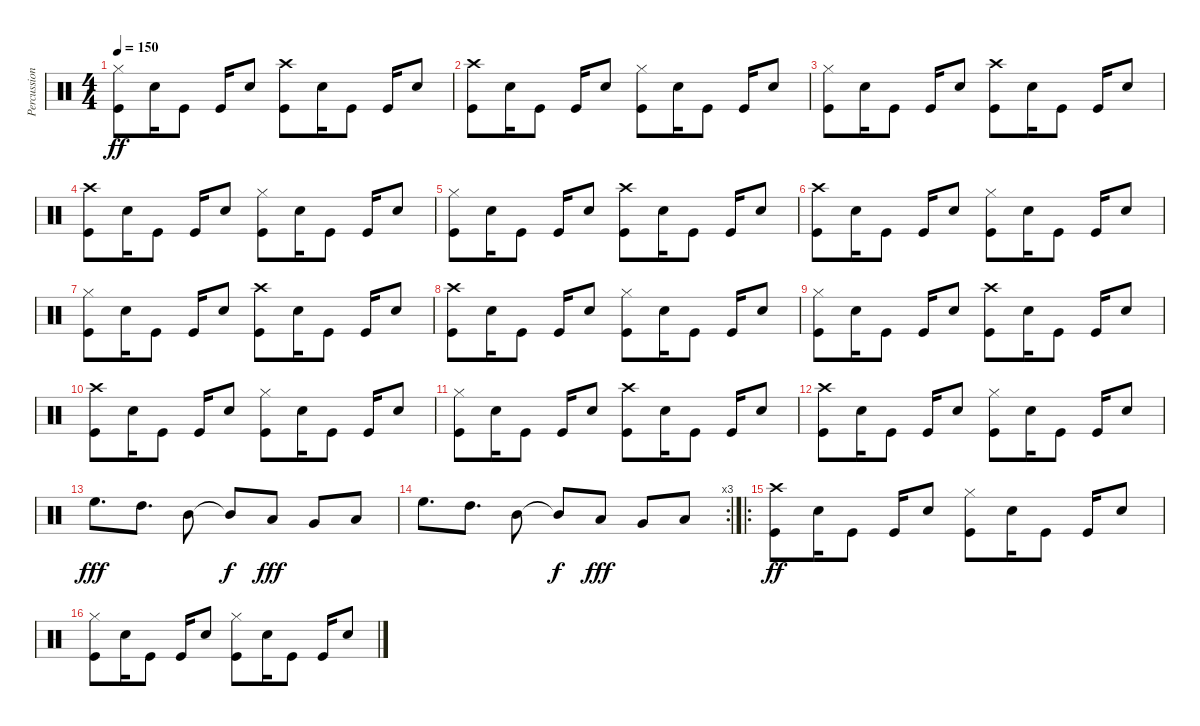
\track ("Percussions" "Percussion") {instrument percussion}
\staff {score}
\articulation defaults
\ts (4 4)
\tempo 150
\clef neutral
\ks c
("Hi-Hat (closed)" "Kick (hit)").8{dy ff} "Snare (hit) 2".16 "Kick (hit)".8 "Kick (hit)".16 "Snare (hit) 2".8 ("Crash high (hit)" "Kick (hit)").8 "Snare (hit) 2".16 "Kick (hit)".8 "Kick (hit)".16 "Snare (hit) 2".8 |
("Crash high (hit)" "Kick (hit)").8 "Snare (hit) 2".16 "Kick (hit)".8 "Kick (hit)".16 "Snare (hit) 2".8 ("Hi-Hat (closed)" "Kick (hit)").8 "Snare (hit) 2".16 "Kick (hit)".8 "Kick (hit)".16 "Snare (hit) 2".8 |
("Hi-Hat (closed)" "Kick (hit)").8 "Snare (hit) 2".16 "Kick (hit)".8 "Kick (hit)".16 "Snare (hit) 2".8 ("Crash high (hit)" "Kick (hit)").8 "Snare (hit) 2".16 "Kick (hit)".8 "Kick (hit)".16 "Snare (hit) 2".8 |
("Crash high (hit)" "Kick (hit)").8 "Snare (hit) 2".16 "Kick (hit)".8 "Kick (hit)".16 "Snare (hit) 2".8 ("Hi-Hat (closed)" "Kick (hit)").8 "Snare (hit) 2".16 "Kick (hit)".8 "Kick (hit)".16 "Snare (hit) 2".8 |
("Hi-Hat (closed)" "Kick (hit)").8 "Snare (hit) 2".16 "Kick (hit)".8 "Kick (hit)".16 "Snare (hit) 2".8 ("Crash high (hit)" "Kick (hit)").8 "Snare (hit) 2".16 "Kick (hit)".8 "Kick (hit)".16 "Snare (hit) 2".8 |
("Crash high (hit)" "Kick (hit)").8 "Snare (hit) 2".16 "Kick (hit)".8 "Kick (hit)".16 "Snare (hit) 2".8 ("Hi-Hat (closed)" "Kick (hit)").8 "Snare (hit) 2".16 "Kick (hit)".8 "Kick (hit)".16 "Snare (hit) 2".8 |
("Hi-Hat (closed)" "Kick (hit)").8 "Snare (hit) 2".16 "Kick (hit)".8 "Kick (hit)".16 "Snare (hit) 2".8 ("Crash high (hit)" "Kick (hit)").8 "Snare (hit) 2".16 "Kick (hit)".8 "Kick (hit)".16 "Snare (hit) 2".8 |
("Crash high (hit)" "Kick (hit)").8 "Snare (hit) 2".16 "Kick (hit)".8 "Kick (hit)".16 "Snare (hit) 2".8 ("Hi-Hat (closed)" "Kick (hit)").8 "Snare (hit) 2".16 "Kick (hit)".8 "Kick (hit)".16 "Snare (hit) 2".8 |
("Hi-Hat (closed)" "Kick (hit)").8 "Snare (hit) 2".16 "Kick (hit)".8 "Kick (hit)".16 "Snare (hit) 2".8 ("Crash high (hit)" "Kick (hit)").8 "Snare (hit) 2".16 "Kick (hit)".8 "Kick (hit)".16 "Snare (hit) 2".8 |
("Crash high (hit)" "Kick (hit)").8 "Snare (hit) 2".16 "Kick (hit)".8 "Kick (hit)".16 "Snare (hit) 2".8 ("Hi-Hat (closed)" "Kick (hit)").8 "Snare (hit) 2".16 "Kick (hit)".8 "Kick (hit)".16 "Snare (hit) 2".8 |
("Hi-Hat (closed)" "Kick (hit)").8 "Snare (hit) 2".16 "Kick (hit)".8 "Kick (hit)".16 "Snare (hit) 2".8 ("Crash high (hit)" "Kick (hit)").8 "Snare (hit) 2".16 "Kick (hit)".8 "Kick (hit)".16 "Snare (hit) 2".8 |
("Crash high (hit)" "Kick (hit)").8 "Snare (hit) 2".16 "Kick (hit)".8 "Kick (hit)".16 "Snare (hit) 2".8 ("Hi-Hat (closed)" "Kick (hit)").8 "Snare (hit) 2".16 "Kick (hit)".8 "Kick (hit)".16 "Snare (hit) 2".8 |
"High Floor Tom (hit)".8{d dy fff} "High Tom (hit)".8{d} "Mid Tom (hit)".8 "Mid Tom (hit)"{t}.8{dy f} "Low Tom (hit)".8{dy fff} "Very Low Tom (hit)".8 "Low Floor Tom (hit)".8 |
\rc 3 "High Floor Tom (hit)".8{d} "High Tom (hit)".8{d} "Mid Tom (hit)".8 "Mid Tom (hit)"{t}.8{dy f} "Low Tom (hit)".8{dy fff} "Very Low Tom (hit)".8 "Low Floor Tom (hit)".8
|
\ro
("Crash high (hit)" "Kick (hit)").8{dy ff} "Snare (hit) 2".16 "Kick (hit)".8 "Kick (hit)".16 "Snare (hit) 2".8 ("Hi-Hat (closed)" "Kick (hit)").8 "Snare (hit) 2".16 "Kick (hit)".8 "Kick (hit)".16 "Snare (hit) 2".8 |
("Hi-Hat (closed)" "Kick (hit)").8 "Snare (hit) 2".16 "Kick (hit)".8 "Kick (hit)".16 "Snare (hit) 2".8 ("Hi-Hat (closed)" "Kick (hit)").8 "Snare (hit) 2".16 "Kick (hit)".8 "Kick (hit)".16 "Snare (hit) 2".8
